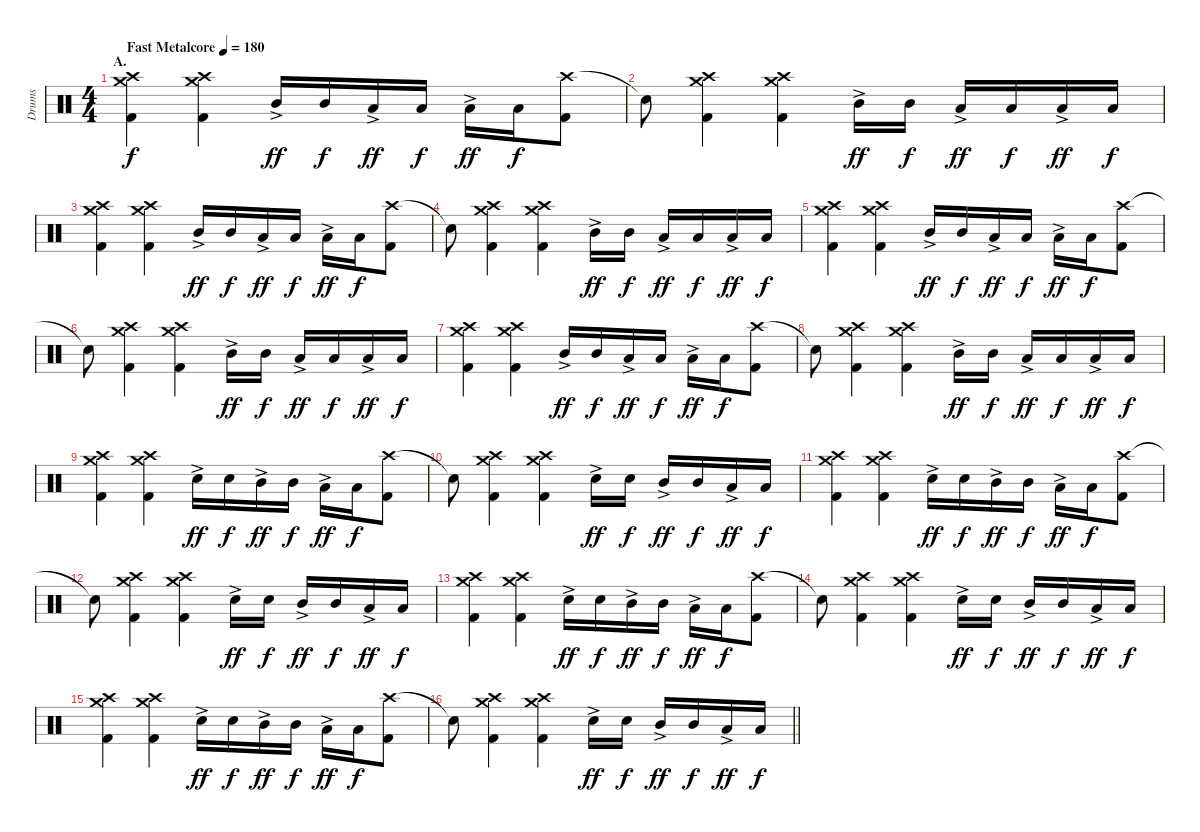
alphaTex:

\track ("Drums" "Drums") {instrument percussion}
\staff {score}
\articulation defaults
\ts (4 4)
\section ("" "A.")
\tempo (180 "Fast Metalcore")
\clef neutral
\ks c
("Crash medium (hit)" "Crash high (hit)" "Kick (hit) 2").4{dy f} ("Crash medium (hit)" "Crash high (hit)" "Kick (hit) 2").4 "Mid Tom (hit)"{ac}.16{dy ff} "Mid Tom (hit)".16{dy f} "Low Tom (hit)"{ac}.16{dy ff} "Low Tom (hit)".16{dy f} "Low Tom (hit)"{ac}.16{dy ff} "Low Tom (hit)".16{dy f} ("Crash high (hit)" "Kick (hit) 2").8 |
"Snare (hit)"{t}.8 ("Crash medium (hit)" "Crash high (hit)" "Kick (hit) 2").4 ("Crash medium (hit)" "Crash high (hit)" "Kick (hit) 2").4 "Mid Tom (hit)"{ac}.16{dy ff} "Mid Tom (hit)".16{dy f} "Low Tom (hit)"{ac}.16{dy ff} "Low Tom (hit)".16{dy f} "Low Tom (hit)"{ac}.16{dy ff} "Low Tom (hit)".16{dy f} |
("Crash medium (hit)" "Crash high (hit)" "Kick (hit) 2").4 ("Crash medium (hit)" "Crash high (hit)" "Kick (hit) 2").4 "Mid Tom (hit)"{ac}.16{dy ff} "Mid Tom (hit)".16{dy f} "Low Tom (hit)"{ac}.16{dy ff} "Low Tom (hit)".16{dy f} "Low Tom (hit)"{ac}.16{dy ff} "Low Tom (hit)".16{dy f} ("Crash high (hit)" "Kick (hit) 2").8 |
"Snare (hit)"{t}.8 ("Crash medium (hit)" "Crash high (hit)" "Kick (hit) 2").4 ("Crash medium (hit)" "Crash high (hit)" "Kick (hit) 2").4 "Mid Tom (hit)"{ac}.16{dy ff} "Mid Tom (hit)".16{dy f} "Low Tom (hit)"{ac}.16{dy ff} "Low Tom (hit)".16{dy f} "Low Tom (hit)"{ac}.16{dy ff} "Low Tom (hit)".16{dy f} |
("Crash medium (hit)" "Crash high (hit)" "Kick (hit) 2").4 ("Crash medium (hit)" "Crash high (hit)" "Kick (hit) 2").4 "Mid Tom (hit)"{ac}.16{dy ff} "Mid Tom (hit)".16{dy f} "Low Tom (hit)"{ac}.16{dy ff} "Low Tom (hit)".16{dy f} "Low Tom (hit)"{ac}.16{dy ff} "Low Tom (hit)".16{dy f} ("Crash high (hit)" "Kick (hit) 2").8 |
"Snare (hit)"{t}.8 ("Crash medium (hit)" "Crash high (hit)" "Kick (hit) 2").4 ("Crash medium (hit)" "Crash high (hit)" "Kick (hit) 2").4 "Mid Tom (hit)"{ac}.16{dy ff} "Mid Tom (hit)".16{dy f} "Low Tom (hit)"{ac}.16{dy ff} "Low Tom (hit)".16{dy f} "Low Tom (hit)"{ac}.16{dy ff} "Low Tom (hit)".16{dy f} |
("Crash medium (hit)" "Crash high (hit)" "Kick (hit) 2").4 ("Crash medium (hit)" "Crash high (hit)" "Kick (hit) 2").4 "Mid Tom (hit)"{ac}.16{dy ff} "Mid Tom (hit)".16{dy f} "Low Tom (hit)"{ac}.16{dy ff} "Low Tom (hit)".16{dy f} "Low Tom (hit)"{ac}.16{dy ff} "Low Tom (hit)".16{dy f} ("Crash high (hit)" "Kick (hit) 2").8 |
"Snare (hit)"{t}.8 ("Crash medium (hit)" "Crash high (hit)" "Kick (hit) 2").4 ("Crash medium (hit)" "Crash high (hit)" "Kick (hit) 2").4 "Mid Tom (hit)"{ac}.16{dy ff} "Mid Tom (hit)".16{dy f} "Low Tom (hit)"{ac}.16{dy ff} "Low Tom (hit)".16{dy f} "Low Tom (hit)"{ac}.16{dy ff} "Low Tom (hit)".16{dy f} |
("Crash medium (hit)" "Crash high (hit)" "Kick (hit) 2").4 ("Crash medium (hit)" "Crash high (hit)" "Kick (hit) 2").4 "Electric Snare (hit)"{ac}.16{dy ff} "Electric Snare (hit)".16{dy f} "Mid Tom (hit)"{ac}.16{dy ff} "Mid Tom (hit)".16{dy f} "Low Tom (hit)"{ac}.16{dy ff} "Low Tom (hit)".16{dy f} ("Crash high (hit)" "Kick (hit) 2").8 |
"Snare (hit)"{t}.8 ("Crash medium (hit)" "Crash high (hit)" "Kick (hit) 2").4 ("Crash medium (hit)" "Crash high (hit)" "Kick (hit) 2").4 "Electric Snare (hit)"{ac}.16{dy ff} "Electric Snare (hit)".16{dy f} "Mid Tom (hit)"{ac}.16{dy ff} "Mid Tom (hit)".16{dy f} "Low Tom (hit)"{ac}.16{dy ff} "Low Tom (hit)".16{dy f} |
("Crash medium (hit)" "Crash high (hit)" "Kick (hit) 2").4 ("Crash medium (hit)" "Crash high (hit)" "Kick (hit) 2").4 "Electric Snare (hit)"{ac}.16{dy ff} "Electric Snare (hit)".16{dy f} "Mid Tom (hit)"{ac}.16{dy ff} "Mid Tom (hit)".16{dy f} "Low Tom (hit)"{ac}.16{dy ff} "Low Tom (hit)".16{dy f} ("Crash high (hit)" "Kick (hit) 2").8 |
"Snare (hit)"{t}.8 ("Crash medium (hit)" "Crash high (hit)" "Kick (hit) 2").4 ("Crash medium (hit)" "Crash high (hit)" "Kick (hit) 2").4 "Electric Snare (hit)"{ac}.16{dy ff} "Electric Snare (hit)".16{dy f} "Mid Tom (hit)"{ac}.16{dy ff} "Mid Tom (hit)".16{dy f} "Low Tom (hit)"{ac}.16{dy ff} "Low Tom (hit)".16{dy f} |
("Crash medium (hit)" "Crash high (hit)" "Kick (hit) 2").4 ("Crash medium (hit)" "Crash high (hit)" "Kick (hit) 2").4 "Electric Snare (hit)"{ac}.16{dy ff} "Electric Snare (hit)".16{dy f} "Mid Tom (hit)"{ac}.16{dy ff} "Mid Tom (hit)".16{dy f} "Low Tom (hit)"{ac}.16{dy ff} "Low Tom (hit)".16{dy f} ("Crash high (hit)" "Kick (hit) 2").8 |
"Snare (hit)"{t}.8 ("Crash medium (hit)" "Crash high (hit)" "Kick (hit) 2").4 ("Crash medium (hit)" "Crash high (hit)" "Kick (hit) 2").4 "Electric Snare (hit)"{ac}.16{dy ff} "Electric Snare (hit)".16{dy f} "Mid Tom (hit)"{ac}.16{dy ff} "Mid Tom (hit)".16{dy f} "Low Tom (hit)"{ac}.16{dy ff} "Low Tom (hit)".16{dy f} |
("Crash medium (hit)" "Crash high (hit)" "Kick (hit) 2").4 ("Crash medium (hit)" "Crash high (hit)" "Kick (hit) 2").4 "Electric Snare (hit)"{ac}.16{dy ff} "Electric Snare (hit)".16{dy f} "Mid Tom (hit)"{ac}.16{dy ff} "Mid Tom (hit)".16{dy f} "Low Tom (hit)"{ac}.16{dy ff} "Low Tom (hit)".16{dy f} ("Crash high (hit)" "Kick (hit) 2").8 |
\barLineRight lightlight "Snare (hit)"{t}.8
("Crash medium (hit)" "Crash high (hit)" "Kick (hit) 2").4 ("Crash medium (hit)" "Crash high (hit)" "Kick (hit) 2").4 "Electric Snare (hit)"{ac}.16{dy ff} "Electric Snare (hit)".16{dy f} "Mid Tom (hit)"{ac}.16{dy ff} "Mid Tom (hit)".16{dy f} "Low Tom (hit)"{ac}.16{dy ff} "Low Tom (hit)".16{dy f}
